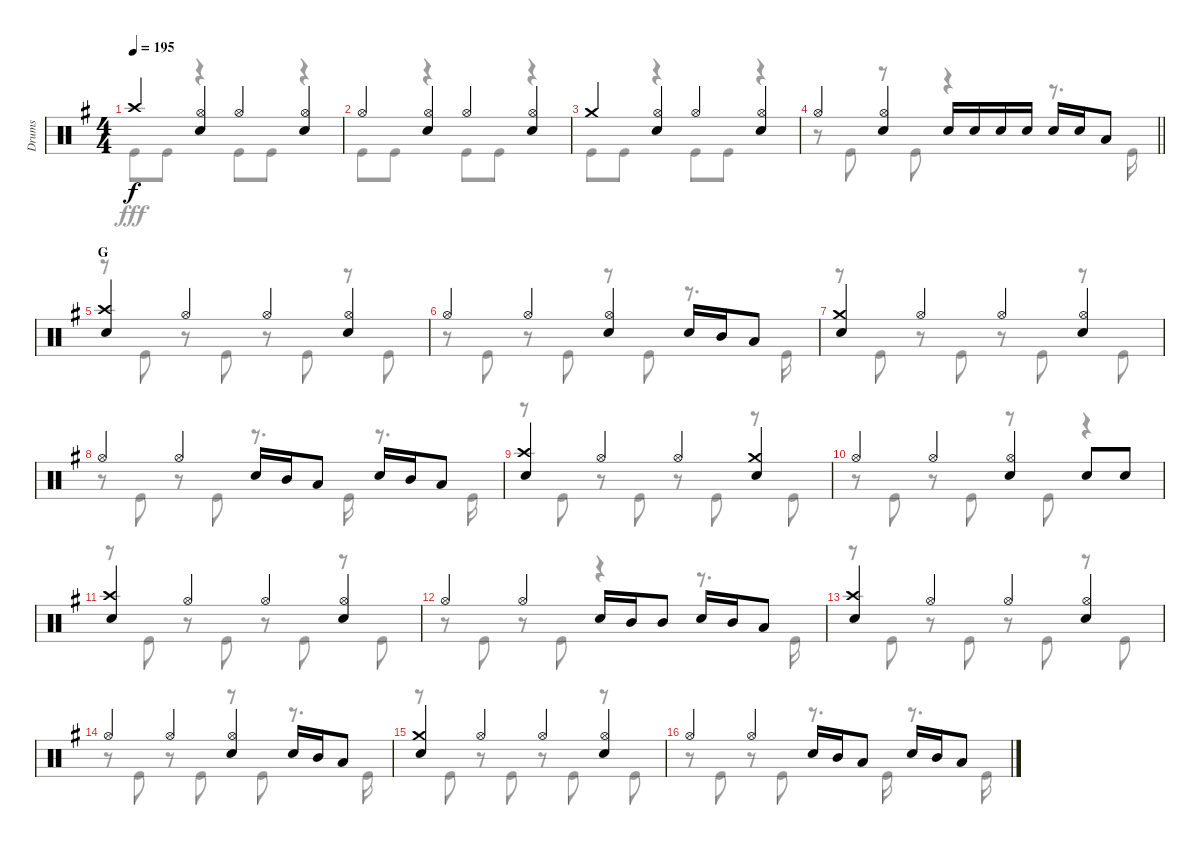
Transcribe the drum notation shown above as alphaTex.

\track ("Drums" "Drums") {instrument percussion}
\staff {score}
\articulation defaults
\voice
\ts (4 4)
\tempo 195
\clef neutral
\ks g "Crash high (hit)".4{dy f}
("Hi-Hat (open)" "Snare (hit) 2").4 "Hi-Hat (open)".4 ("Hi-Hat (open)" "Snare (hit) 2").4 |
"Hi-Hat (open)".4 ("Hi-Hat (open)" "Snare (hit) 2").4 "Hi-Hat (open)".4 ("Hi-Hat (open)" "Snare (hit) 2").4 |
"Crash medium (hit)".4 ("Hi-Hat (open)" "Snare (hit) 2").4 "Hi-Hat (open)".4 ("Hi-Hat (open)" "Snare (hit) 2").4 |
\barLineRight lightlight "Hi-Hat (open)".4
("Hi-Hat (open)" "Snare (hit) 2").4 "Snare (hit) 2".16 "Snare (hit) 2".16 "Snare (hit) 2".16 "Snare (hit) 2".16 "Snare (hit) 2".16 "Snare (hit) 2".16 "Low Tom (hit)".8 |
\section ("" "G")
("Crash high (hit)" "Snare (hit) 2").4 "Hi-Hat (open)".4 "Hi-Hat (open)".4 ("Hi-Hat (open)" "Snare (hit) 2").4 |
"Hi-Hat (open)".4 "Hi-Hat (open)".4 ("Hi-Hat (open)" "Snare (hit) 2").4 "Snare (hit) 2".16 "Mid Tom (hit)".16 "Low Tom (hit)".8 |
("Crash medium (hit)" "Snare (hit) 2").4 "Hi-Hat (open)".4 "Hi-Hat (open)".4 ("Hi-Hat (open)" "Snare (hit) 2").4 |
"Hi-Hat (open)".4 "Hi-Hat (open)".4 "Snare (hit) 2".16 "Mid Tom (hit)".16 "Low Tom (hit)".8 "Snare (hit) 2".16 "Mid Tom (hit)".16 "Low Tom (hit)".8 |
("Crash high (hit)" "Snare (hit) 2").4 "Hi-Hat (open)".4 "Hi-Hat (open)".4 ("Crash medium (hit)" "Snare (hit) 2").4 |
"Hi-Hat (open)".4 "Hi-Hat (open)".4 ("Hi-Hat (open)" "Snare (hit) 2").4 "Snare (hit) 2".8 "Snare (hit) 2".8 |
("Crash high (hit)" "Snare (hit) 2").4 "Hi-Hat (open)".4 "Hi-Hat (open)".4 ("Hi-Hat (open)" "Snare (hit) 2").4 |
"Hi-Hat (open)".4 "Hi-Hat (open)".4 "Snare (hit) 2".16 "Mid Tom (hit)".16 "Mid Tom (hit)".8 "Snare (hit) 2".16 "Mid Tom (hit)".16 "Low Tom (hit)".8 |
("Crash high (hit)" "Snare (hit) 2").4 "Hi-Hat (open)".4 "Hi-Hat (open)".4 ("Hi-Hat (open)" "Snare (hit) 2").4 |
"Hi-Hat (open)".4 "Hi-Hat (open)".4 ("Hi-Hat (open)" "Snare (hit) 2").4 "Snare (hit) 2".16 "Mid Tom (hit)".16 "Low Tom (hit)".8 |
("Crash medium (hit)" "Snare (hit) 2").4 "Hi-Hat (open)".4 "Hi-Hat (open)".4 ("Hi-Hat (open)" "Snare (hit) 2").4 |
"Hi-Hat (open)".4 "Hi-Hat (open)".4 "Snare (hit) 2".16 "Mid Tom (hit)".16 "Low Tom (hit)".8 "Snare (hit) 2".16 "Mid Tom (hit)".16 "Low Tom (hit)".8
\voice
\clef neutral
\ottava regular
\simile none
\ks g "Kick (hit)".8{dy fff} "Kick (hit)".8
r.4 "Kick (hit)".8 "Kick (hit)".8 r.4 |
"Kick (hit)".8 "Kick (hit)".8 r.4 "Kick (hit)".8 "Kick (hit)".8 r.4 |
"Kick (hit)".8 "Kick (hit)".8 r.4 "Kick (hit)".8 "Kick (hit)".8 r.4 |
\barLineRight lightlight
r.8 "Kick (hit)".8 r.8 "Kick (hit)".8 r.4 r.8{d} "Kick (hit)".16 |
r.8 "Kick (hit)".8 r.8 "Kick (hit)".8 r.8 "Kick (hit)".8 r.8 "Kick (hit)".8 |
r.8 "Kick (hit)".8 r.8 "Kick (hit)".8 r.8 "Kick (hit)".8 r.8{d} "Kick (hit)".16 |
r.8 "Kick (hit)".8 r.8 "Kick (hit)".8 r.8 "Kick (hit)".8 r.8 "Kick (hit)".8 |
r.8 "Kick (hit)".8 r.8 "Kick (hit)".8 r.8{d} "Kick (hit)".16 r.8{d} "Kick (hit)".16 |
r.8 "Kick (hit)".8 r.8 "Kick (hit)".8 r.8 "Kick (hit)".8 r.8 "Kick (hit)".8 |
r.8 "Kick (hit)".8 r.8 "Kick (hit)".8 r.8 "Kick (hit)".8 r.4 |
r.8 "Kick (hit)".8 r.8 "Kick (hit)".8 r.8 "Kick (hit)".8 r.8 "Kick (hit)".8 |
r.8 "Kick (hit)".8 r.8 "Kick (hit)".8 r.4 r.8{d} "Kick (hit)".16 |
r.8 "Kick (hit)".8 r.8 "Kick (hit)".8 r.8 "Kick (hit)".8 r.8 "Kick (hit)".8 |
r.8 "Kick (hit)".8 r.8 "Kick (hit)".8 r.8 "Kick (hit)".8 r.8{d} "Kick (hit)".16 |
r.8 "Kick (hit)".8 r.8 "Kick (hit)".8 r.8 "Kick (hit)".8 r.8 "Kick (hit)".8 |
r.8 "Kick (hit)".8 r.8 "Kick (hit)".8 r.8{d} "Kick (hit)".16 r.8{d} "Kick (hit)".16
